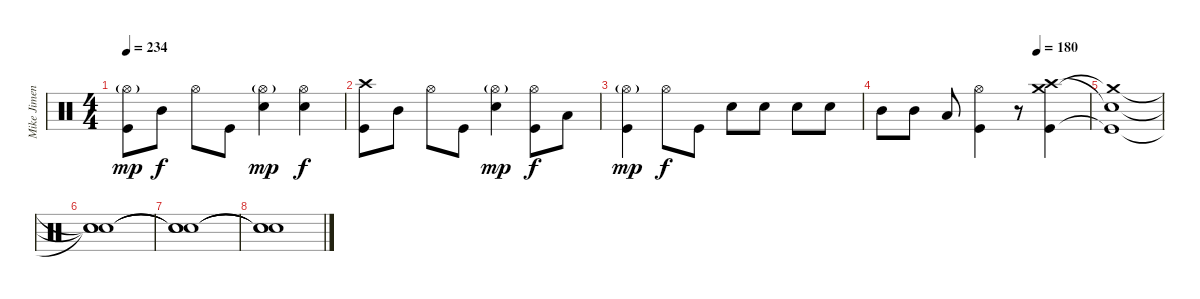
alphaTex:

\track ("Mike Jimenez" "Mike Jimen") {instrument percussion}
\staff {score}
\articulation defaults
\ts (4 4)
\tempo 234
\clef neutral
\ks c
("Hi-Hat (open)"{g} "Kick (hit)").8{dy mp} "Mid Tom (hit)".8{dy f} "Hi-Hat (open)".8 "Kick (hit)".8 ("Hi-Hat (open)"{g} "Electric Snare (hit)").4{dy mp} ("Hi-Hat (open)" "Electric Snare (hit)").4{dy f} |
("Crash high (hit)" "Kick (hit)").8 "Mid Tom (hit)".8 "Hi-Hat (open)".8 "Kick (hit)".8 ("Hi-Hat (open)"{g} "Electric Snare (hit)").4{dy mp} ("Hi-Hat (open)" "Kick (hit)").8{dy f} "Low Tom (hit)".8 |
("Hi-Hat (open)"{g} "Kick (hit)").4{dy mp} "Hi-Hat (open)".8{dy f} "Kick (hit)".8 "Electric Snare (hit)".8 "Electric Snare (hit)".8 "Electric Snare (hit)".8 "Electric Snare (hit)".8 |
\tempo (180 0.75)
"Mid Tom (hit)".8 "Mid Tom (hit)".8 "Low Tom (hit)".8 ("Hi-Hat (open)" "Kick (hit)").4 r.8 ("Crash high (hit)" "Crash medium (hit)" "Kick (hit)").4 |
("Snare (hit)"{t} "Crash medium (hit)"{t} "Kick (hit)"{t}).1 |
("Snare (hit)"{t} "Snare (hit)"{t} "Snare (hit)"{t}).1 |
("Snare (hit)"{t} "Snare (hit)"{t} "Snare (hit)"{t}).1 |
("Snare (hit)"{t} "Snare (hit)"{t} "Snare (hit)"{t}).1
